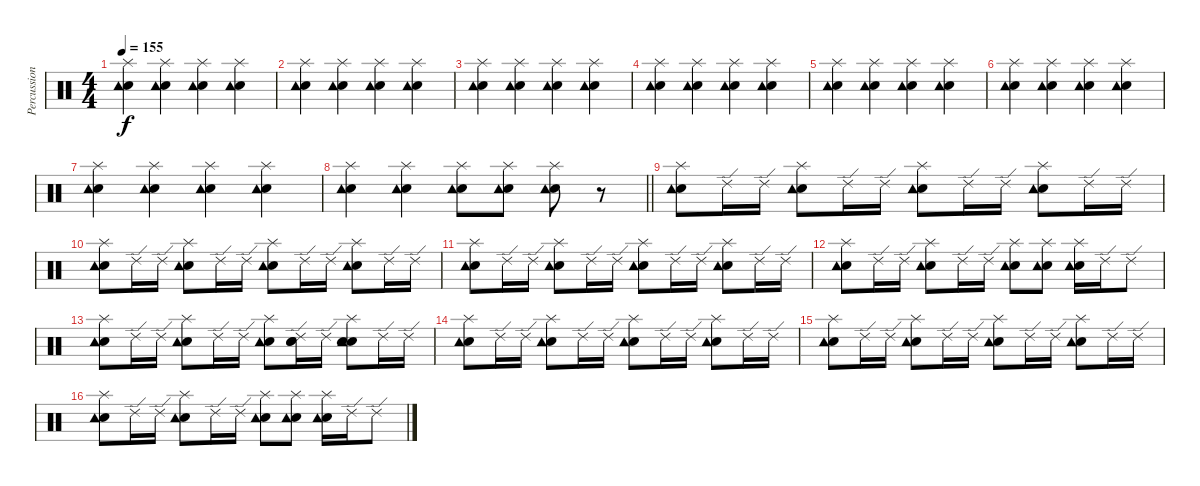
\track ("Percussions" "Percussion") {instrument percussion}
\staff {score}
\articulation defaults
\ts (4 4)
\tempo 155
\clef neutral
\ks c
("Hand Clap (hit)" "Splash (hit)" "Tambourine (hit)").4{dy f} ("Hand Clap (hit)" "Splash (hit)" "Tambourine (hit)").4 ("Hand Clap (hit)" "Splash (hit)" "Tambourine (hit)").4 ("Hand Clap (hit)" "Splash (hit)" "Tambourine (hit)").4 |
("Hand Clap (hit)" "Splash (hit)" "Tambourine (hit)").4 ("Hand Clap (hit)" "Splash (hit)" "Tambourine (hit)").4 ("Hand Clap (hit)" "Splash (hit)" "Tambourine (hit)").4 ("Hand Clap (hit)" "Splash (hit)" "Tambourine (hit)").4 |
("Hand Clap (hit)" "Splash (hit)" "Tambourine (hit)").4 ("Hand Clap (hit)" "Splash (hit)" "Tambourine (hit)").4 ("Hand Clap (hit)" "Splash (hit)" "Tambourine (hit)").4 ("Hand Clap (hit)" "Splash (hit)" "Tambourine (hit)").4 |
("Hand Clap (hit)" "Splash (hit)" "Tambourine (hit)").4 ("Hand Clap (hit)" "Splash (hit)" "Tambourine (hit)").4 ("Hand Clap (hit)" "Splash (hit)" "Tambourine (hit)").4 ("Hand Clap (hit)" "Splash (hit)" "Tambourine (hit)").4 |
("Hand Clap (hit)" "Splash (hit)" "Tambourine (hit)").4 ("Hand Clap (hit)" "Splash (hit)" "Tambourine (hit)").4 ("Hand Clap (hit)" "Splash (hit)" "Tambourine (hit)").4 ("Hand Clap (hit)" "Splash (hit)" "Tambourine (hit)").4 |
("Hand Clap (hit)" "Splash (hit)" "Tambourine (hit)").4 ("Hand Clap (hit)" "Splash (hit)" "Tambourine (hit)").4 ("Hand Clap (hit)" "Splash (hit)" "Tambourine (hit)").4 ("Hand Clap (hit)" "Splash (hit)" "Tambourine (hit)").4 |
("Hand Clap (hit)" "Splash (hit)" "Tambourine (hit)").4 ("Hand Clap (hit)" "Splash (hit)" "Tambourine (hit)").4 ("Hand Clap (hit)" "Splash (hit)" "Tambourine (hit)").4 ("Hand Clap (hit)" "Splash (hit)" "Tambourine (hit)").4 |
\barLineRight lightlight
("Hand Clap (hit)" "Splash (hit)" "Tambourine (hit)").4 ("Hand Clap (hit)" "Splash (hit)" "Tambourine (hit)").4 ("Hand Clap (hit)" "Splash (hit)" "Tambourine (hit)").8 ("Hand Clap (hit)" "Splash (hit)" "Tambourine (hit)").8 ("Hand Clap (hit)" "Splash (hit)" "Tambourine (hit)").8 r.8 |
\section ("" "")
("Hand Clap (hit)" "Splash (hit)" "Tambourine (hit)").8 "Ride (edge) 2".16 "Ride (edge) 2".16 ("Hand Clap (hit)" "Splash (hit)" "Tambourine (hit)").8 "Ride (edge) 2".16 "Ride (edge) 2".16 ("Hand Clap (hit)" "Splash (hit)" "Tambourine (hit)").8 "Ride (edge) 2".16 "Ride (edge) 2".16 ("Hand Clap (hit)" "Splash (hit)" "Tambourine (hit)").8 "Ride (edge) 2".16 "Ride (edge) 2".16 |
("Hand Clap (hit)" "Splash (hit)" "Tambourine (hit)").8 "Ride (edge) 2".16 "Ride (edge) 2".16 ("Hand Clap (hit)" "Splash (hit)" "Tambourine (hit)").8 "Ride (edge) 2".16 "Ride (edge) 2".16 ("Hand Clap (hit)" "Splash (hit)" "Tambourine (hit)").8 "Ride (edge) 2".16 "Ride (edge) 2".16 ("Hand Clap (hit)" "Splash (hit)" "Tambourine (hit)").8 "Ride (edge) 2".16 "Ride (edge) 2".16 |
("Hand Clap (hit)" "Splash (hit)" "Tambourine (hit)").8 "Ride (edge) 2".16 "Ride (edge) 2".16 ("Hand Clap (hit)" "Splash (hit)" "Tambourine (hit)").8 "Ride (edge) 2".16 "Ride (edge) 2".16 ("Hand Clap (hit)" "Splash (hit)" "Tambourine (hit)").8 "Ride (edge) 2".16 "Ride (edge) 2".16 ("Hand Clap (hit)" "Splash (hit)" "Tambourine (hit)").8 "Ride (edge) 2".16 "Ride (edge) 2".16 |
("Hand Clap (hit)" "Splash (hit)" "Tambourine (hit)").8 "Ride (edge) 2".16 "Ride (edge) 2".16 ("Hand Clap (hit)" "Splash (hit)" "Tambourine (hit)").8 "Ride (edge) 2".16 "Ride (edge) 2".16 ("Hand Clap (hit)" "Splash (hit)" "Tambourine (hit)").8 ("Hand Clap (hit)" "Splash (hit)" "Tambourine (hit)").8 ("Hand Clap (hit)" "Splash (hit)" "Tambourine (hit)").16 "Ride (edge) 2".16 "Ride (edge) 2".8 |
("Hand Clap (hit)" "Splash (hit)" "Tambourine (hit)").8 "Ride (edge) 2".16 "Ride (edge) 2".16 ("Hand Clap (hit)" "Splash (hit)" "Tambourine (hit)").8 "Ride (edge) 2".16 "Ride (edge) 2".16 ("Hand Clap (hit)" "Splash (hit)" "Tambourine (hit)").8 ("Hand Clap (hit)" "Hand Clap (hit)" "Ride (edge) 2").16 "Ride (edge) 2".16 ("Hand Clap (hit)" "Hand Clap (hit)" "Splash (hit)" "Tambourine (hit)").8 "Ride (edge) 2".16 "Ride (edge) 2".16 |
("Hand Clap (hit)" "Splash (hit)" "Tambourine (hit)").8 "Ride (edge) 2".16 "Ride (edge) 2".16 ("Hand Clap (hit)" "Splash (hit)" "Tambourine (hit)").8 "Ride (edge) 2".16 "Ride (edge) 2".16 ("Hand Clap (hit)" "Splash (hit)" "Tambourine (hit)").8 "Ride (edge) 2".16 "Ride (edge) 2".16 ("Hand Clap (hit)" "Splash (hit)" "Tambourine (hit)").8 "Ride (edge) 2".16 "Ride (edge) 2".16 |
("Hand Clap (hit)" "Splash (hit)" "Tambourine (hit)").8 "Ride (edge) 2".16 "Ride (edge) 2".16 ("Hand Clap (hit)" "Splash (hit)" "Tambourine (hit)").8 "Ride (edge) 2".16 "Ride (edge) 2".16 ("Hand Clap (hit)" "Splash (hit)" "Tambourine (hit)").8 "Ride (edge) 2".16 "Ride (edge) 2".16 ("Hand Clap (hit)" "Splash (hit)" "Tambourine (hit)").8 "Ride (edge) 2".16 "Ride (edge) 2".16 |
("Hand Clap (hit)" "Splash (hit)" "Tambourine (hit)").8 "Ride (edge) 2".16 "Ride (edge) 2".16 ("Hand Clap (hit)" "Splash (hit)" "Tambourine (hit)").8 "Ride (edge) 2".16 "Ride (edge) 2".16 ("Hand Clap (hit)" "Splash (hit)" "Tambourine (hit)").8 ("Hand Clap (hit)" "Splash (hit)" "Tambourine (hit)").8 ("Hand Clap (hit)" "Splash (hit)" "Tambourine (hit)").16 "Ride (edge) 2".16 "Ride (edge) 2".8
